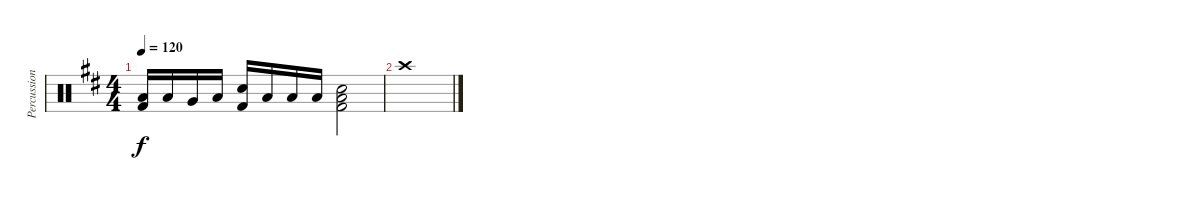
\track ("Percussion" "Percussion") {instrument percussion}
\staff {score}
\articulation defaults
\ts (4 4)
\tempo 120
\clef neutral
\ks d
("Low Floor Tom (hit)" "Kick (hit) 2").16{dy f} "Low Floor Tom (hit)".16 "Very Low Tom (hit)".16 "Low Floor Tom (hit)".16 ("Snare (hit) 2" "Kick (hit) 2").16 "Low Floor Tom (hit)".16 "Low Floor Tom (hit)".16 "Low Floor Tom (hit)".16 ("Low Floor Tom (hit)" "Snare (hit) 2" "Kick (hit) 2").2 |
"Crash high (hit)".1
